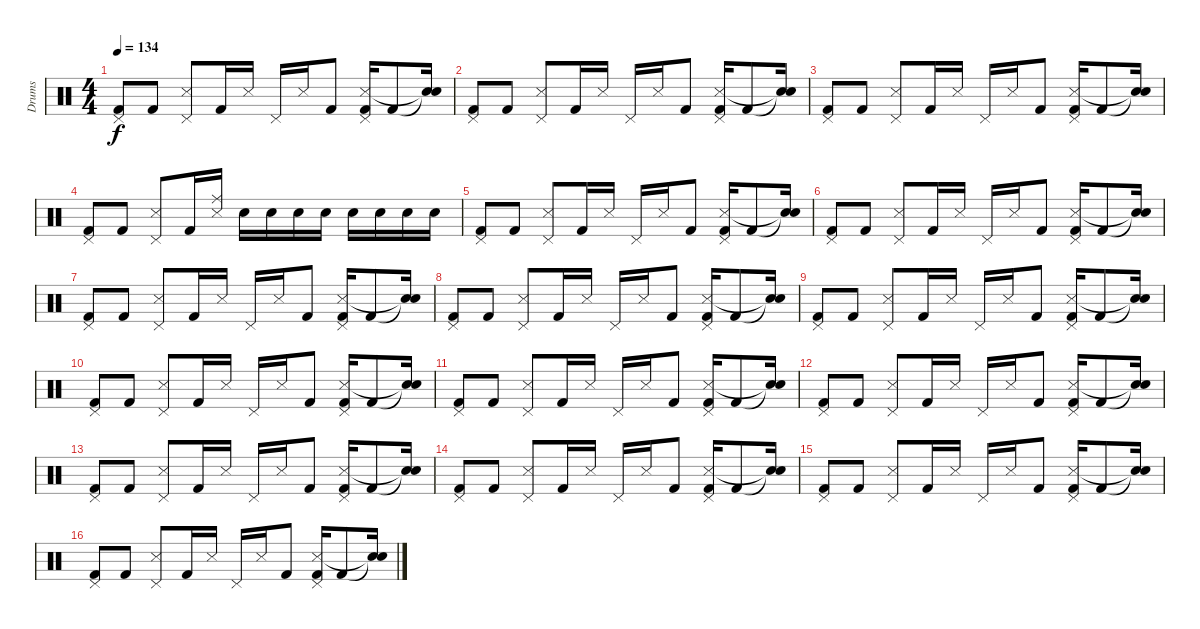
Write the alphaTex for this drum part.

\track ("Drums" "Drums") {instrument percussion}
\staff {score}
\articulation defaults
\ts (4 4)
\tempo 134
\clef neutral
\ks c
("Pedal Hi-Hat (hit)" "Kick (hit) 2").8{dy f} "Kick (hit) 2".8 ("Snare (side stick) 3" "Pedal Hi-Hat (hit)").8 "Kick (hit) 2".16 "Snare (side stick) 3".16 "Pedal Hi-Hat (hit)".16 "Snare (side stick) 3".16 "Kick (hit) 2".8 ("Pedal Hi-Hat (hit)" "Snare (side stick) 3" "Kick (hit) 2").16 "Kick (hit) 2".8 ("Snare (hit)"{t} "Snare (hit)"{t}).16 |
("Pedal Hi-Hat (hit)" "Kick (hit) 2").8 "Kick (hit) 2".8 ("Snare (side stick) 3" "Pedal Hi-Hat (hit)").8 "Kick (hit) 2".16 "Snare (side stick) 3".16 "Pedal Hi-Hat (hit)".16 "Snare (side stick) 3".16 "Kick (hit) 2".8 ("Pedal Hi-Hat (hit)" "Snare (side stick) 3" "Kick (hit) 2").16 "Kick (hit) 2".8 ("Snare (hit)"{t} "Snare (hit)"{t}).16 |
("Pedal Hi-Hat (hit)" "Kick (hit) 2").8 "Kick (hit) 2".8 ("Snare (side stick) 3" "Pedal Hi-Hat (hit)").8 "Kick (hit) 2".16 "Snare (side stick) 3".16 "Pedal Hi-Hat (hit)".16 "Snare (side stick) 3".16 "Kick (hit) 2".8 ("Pedal Hi-Hat (hit)" "Snare (side stick) 3" "Kick (hit) 2").16 "Kick (hit) 2".8 ("Snare (hit)"{t} "Snare (hit)"{t}).16 |
("Pedal Hi-Hat (hit)" "Kick (hit) 2").8 "Kick (hit) 2".8 ("Snare (side stick) 3" "Pedal Hi-Hat (hit)").8 "Kick (hit) 2".16 ("Snare (side stick) 3" "Ride (middle)").16 "Electric Snare (hit)".16 "Electric Snare (hit)".16 "Electric Snare (hit)".16 "Electric Snare (hit)".16 "Electric Snare (hit)".16 "Electric Snare (hit)".16 "Electric Snare (hit)".16 "Electric Snare (hit)".16 |
("Pedal Hi-Hat (hit)" "Kick (hit) 2").8 "Kick (hit) 2".8 ("Snare (side stick) 3" "Pedal Hi-Hat (hit)").8 "Kick (hit) 2".16 "Snare (side stick) 3".16 "Pedal Hi-Hat (hit)".16 "Snare (side stick) 3".16 "Kick (hit) 2".8 ("Pedal Hi-Hat (hit)" "Snare (side stick) 3" "Kick (hit) 2").16 "Kick (hit) 2".8 ("Snare (hit)"{t} "Snare (hit)"{t}).16 |
("Pedal Hi-Hat (hit)" "Kick (hit) 2").8 "Kick (hit) 2".8 ("Snare (side stick) 3" "Pedal Hi-Hat (hit)").8 "Kick (hit) 2".16 "Snare (side stick) 3".16 "Pedal Hi-Hat (hit)".16 "Snare (side stick) 3".16 "Kick (hit) 2".8 ("Pedal Hi-Hat (hit)" "Snare (side stick) 3" "Kick (hit) 2").16 "Kick (hit) 2".8 ("Snare (hit)"{t} "Snare (hit)"{t}).16 |
("Pedal Hi-Hat (hit)" "Kick (hit) 2").8 "Kick (hit) 2".8 ("Snare (side stick) 3" "Pedal Hi-Hat (hit)").8 "Kick (hit) 2".16 "Snare (side stick) 3".16 "Pedal Hi-Hat (hit)".16 "Snare (side stick) 3".16 "Kick (hit) 2".8 ("Pedal Hi-Hat (hit)" "Snare (side stick) 3" "Kick (hit) 2").16 "Kick (hit) 2".8 ("Snare (hit)"{t} "Snare (hit)"{t}).16 |
("Pedal Hi-Hat (hit)" "Kick (hit) 2").8 "Kick (hit) 2".8 ("Snare (side stick) 3" "Pedal Hi-Hat (hit)").8 "Kick (hit) 2".16 "Snare (side stick) 3".16 "Pedal Hi-Hat (hit)".16 "Snare (side stick) 3".16 "Kick (hit) 2".8 ("Pedal Hi-Hat (hit)" "Snare (side stick) 3" "Kick (hit) 2").16 "Kick (hit) 2".8 ("Snare (hit)"{t} "Snare (hit)"{t}).16 |
("Pedal Hi-Hat (hit)" "Kick (hit) 2").8 "Kick (hit) 2".8 ("Snare (side stick) 3" "Pedal Hi-Hat (hit)").8 "Kick (hit) 2".16 "Snare (side stick) 3".16 "Pedal Hi-Hat (hit)".16 "Snare (side stick) 3".16 "Kick (hit) 2".8 ("Pedal Hi-Hat (hit)" "Snare (side stick) 3" "Kick (hit) 2").16 "Kick (hit) 2".8 ("Snare (hit)"{t} "Snare (hit)"{t}).16 |
("Pedal Hi-Hat (hit)" "Kick (hit) 2").8 "Kick (hit) 2".8 ("Snare (side stick) 3" "Pedal Hi-Hat (hit)").8 "Kick (hit) 2".16 "Snare (side stick) 3".16 "Pedal Hi-Hat (hit)".16 "Snare (side stick) 3".16 "Kick (hit) 2".8 ("Pedal Hi-Hat (hit)" "Snare (side stick) 3" "Kick (hit) 2").16 "Kick (hit) 2".8 ("Snare (hit)"{t} "Snare (hit)"{t}).16 |
("Pedal Hi-Hat (hit)" "Kick (hit) 2").8 "Kick (hit) 2".8 ("Snare (side stick) 3" "Pedal Hi-Hat (hit)").8 "Kick (hit) 2".16 "Snare (side stick) 3".16 "Pedal Hi-Hat (hit)".16 "Snare (side stick) 3".16 "Kick (hit) 2".8 ("Pedal Hi-Hat (hit)" "Snare (side stick) 3" "Kick (hit) 2").16 "Kick (hit) 2".8 ("Snare (hit)"{t} "Snare (hit)"{t}).16 |
("Pedal Hi-Hat (hit)" "Kick (hit) 2").8 "Kick (hit) 2".8 ("Snare (side stick) 3" "Pedal Hi-Hat (hit)").8 "Kick (hit) 2".16 "Snare (side stick) 3".16 "Pedal Hi-Hat (hit)".16 "Snare (side stick) 3".16 "Kick (hit) 2".8 ("Pedal Hi-Hat (hit)" "Snare (side stick) 3" "Kick (hit) 2").16 "Kick (hit) 2".8 ("Snare (hit)"{t} "Snare (hit)"{t}).16 |
("Pedal Hi-Hat (hit)" "Kick (hit) 2").8 "Kick (hit) 2".8 ("Snare (side stick) 3" "Pedal Hi-Hat (hit)").8 "Kick (hit) 2".16 "Snare (side stick) 3".16 "Pedal Hi-Hat (hit)".16 "Snare (side stick) 3".16 "Kick (hit) 2".8 ("Pedal Hi-Hat (hit)" "Snare (side stick) 3" "Kick (hit) 2").16 "Kick (hit) 2".8 ("Snare (hit)"{t} "Snare (hit)"{t}).16 |
("Pedal Hi-Hat (hit)" "Kick (hit) 2").8 "Kick (hit) 2".8 ("Snare (side stick) 3" "Pedal Hi-Hat (hit)").8 "Kick (hit) 2".16 "Snare (side stick) 3".16 "Pedal Hi-Hat (hit)".16 "Snare (side stick) 3".16 "Kick (hit) 2".8 ("Pedal Hi-Hat (hit)" "Snare (side stick) 3" "Kick (hit) 2").16 "Kick (hit) 2".8 ("Snare (hit)"{t} "Snare (hit)"{t}).16 |
("Pedal Hi-Hat (hit)" "Kick (hit) 2").8 "Kick (hit) 2".8 ("Snare (side stick) 3" "Pedal Hi-Hat (hit)").8 "Kick (hit) 2".16 "Snare (side stick) 3".16 "Pedal Hi-Hat (hit)".16 "Snare (side stick) 3".16 "Kick (hit) 2".8 ("Pedal Hi-Hat (hit)" "Snare (side stick) 3" "Kick (hit) 2").16 "Kick (hit) 2".8 ("Snare (hit)"{t} "Snare (hit)"{t}).16 |
("Pedal Hi-Hat (hit)" "Kick (hit) 2").8 "Kick (hit) 2".8 ("Snare (side stick) 3" "Pedal Hi-Hat (hit)").8 "Kick (hit) 2".16 "Snare (side stick) 3".16 "Pedal Hi-Hat (hit)".16 "Snare (side stick) 3".16 "Kick (hit) 2".8 ("Pedal Hi-Hat (hit)" "Snare (side stick) 3" "Kick (hit) 2").16 "Kick (hit) 2".8 ("Snare (hit)"{t} "Snare (hit)"{t}).16
